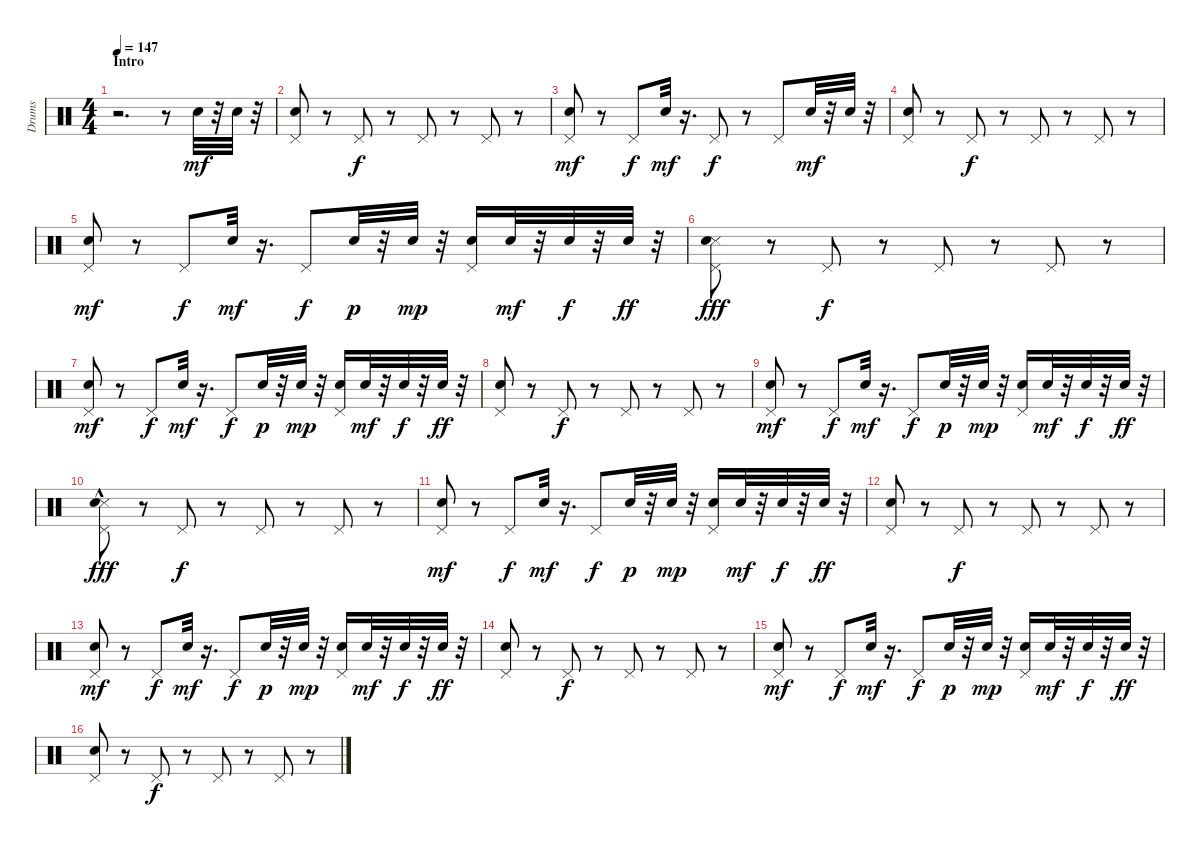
\track ("Drums" "Drums") {instrument percussion}
\staff {score}
\articulation defaults
\ts (4 4)
\section ("" "Intro")
\tempo 147
\clef neutral
\ks c
r.2{d dy mf} r.8 "Snare (hit) 2".32 r.32 "Snare (hit) 2".32 r.32 |
("Pedal Hi-Hat (hit)" "Snare (hit) 2").8 r.8 "Pedal Hi-Hat (hit)".8{dy f} r.8 "Pedal Hi-Hat (hit)".8 r.8 "Pedal Hi-Hat (hit)".8 r.8 |
("Pedal Hi-Hat (hit)" "Snare (hit) 2").8{dy mf} r.8 "Pedal Hi-Hat (hit)".8{dy f} "Snare (hit) 2".32{dy mf} r.16{d} "Pedal Hi-Hat (hit)".8{dy f} r.8 "Pedal Hi-Hat (hit)".8 "Snare (hit) 2".32{dy mf} r.32 "Snare (hit) 2".32 r.32 |
("Pedal Hi-Hat (hit)" "Snare (hit) 2").8 r.8 "Pedal Hi-Hat (hit)".8{dy f} r.8 "Pedal Hi-Hat (hit)".8 r.8 "Pedal Hi-Hat (hit)".8 r.8 |
("Pedal Hi-Hat (hit)" "Snare (hit) 2").8{dy mf} r.8 "Pedal Hi-Hat (hit)".8{dy f} "Snare (hit) 2".32{dy mf} r.16{d} "Pedal Hi-Hat (hit)".8{dy f} "Snare (hit) 2".32{dy p} r.32 "Snare (hit) 2".32{dy mp} r.32 ("Pedal Hi-Hat (hit)" "Snare (hit) 2").16 "Snare (hit) 2".32{dy mf} r.32 "Snare (hit) 2".32{dy f} r.32 "Snare (hit) 2".32{dy ff} r.32 |
("Pedal Hi-Hat (hit)" "Snare (side stick) 3" "Snare (hit) 2").8{dy fff} r.8 "Pedal Hi-Hat (hit)".8{dy f} r.8 "Pedal Hi-Hat (hit)".8 r.8 "Pedal Hi-Hat (hit)".8 r.8 |
("Pedal Hi-Hat (hit)" "Snare (hit) 2").8{dy mf} r.8 "Pedal Hi-Hat (hit)".8{dy f} "Snare (hit) 2".32{dy mf} r.16{d} "Pedal Hi-Hat (hit)".8{dy f} "Snare (hit) 2".32{dy p} r.32 "Snare (hit) 2".32{dy mp} r.32 ("Pedal Hi-Hat (hit)" "Snare (hit) 2").16 "Snare (hit) 2".32{dy mf} r.32 "Snare (hit) 2".32{dy f} r.32 "Snare (hit) 2".32{dy ff} r.32 |
("Pedal Hi-Hat (hit)" "Snare (hit) 2").8 r.8 "Pedal Hi-Hat (hit)".8{dy f} r.8 "Pedal Hi-Hat (hit)".8 r.8 "Pedal Hi-Hat (hit)".8 r.8 |
("Pedal Hi-Hat (hit)" "Snare (hit) 2").8{dy mf} r.8 "Pedal Hi-Hat (hit)".8{dy f} "Snare (hit) 2".32{dy mf} r.16{d} "Pedal Hi-Hat (hit)".8{dy f} "Snare (hit) 2".32{dy p} r.32 "Snare (hit) 2".32{dy mp} r.32 ("Pedal Hi-Hat (hit)" "Snare (hit) 2").16 "Snare (hit) 2".32{dy mf} r.32 "Snare (hit) 2".32{dy f} r.32 "Snare (hit) 2".32{dy ff} r.32 |
("Pedal Hi-Hat (hit)" "Snare (side stick) 3"{hac} "Snare (hit) 2").8{dy fff} r.8 "Pedal Hi-Hat (hit)".8{dy f} r.8 "Pedal Hi-Hat (hit)".8 r.8 "Pedal Hi-Hat (hit)".8 r.8 |
("Pedal Hi-Hat (hit)" "Snare (hit) 2").8{dy mf} r.8 "Pedal Hi-Hat (hit)".8{dy f} "Snare (hit) 2".32{dy mf} r.16{d} "Pedal Hi-Hat (hit)".8{dy f} "Snare (hit) 2".32{dy p} r.32 "Snare (hit) 2".32{dy mp} r.32 ("Pedal Hi-Hat (hit)" "Snare (hit) 2").16 "Snare (hit) 2".32{dy mf} r.32 "Snare (hit) 2".32{dy f} r.32 "Snare (hit) 2".32{dy ff} r.32 |
("Pedal Hi-Hat (hit)" "Snare (hit) 2").8 r.8 "Pedal Hi-Hat (hit)".8{dy f} r.8 "Pedal Hi-Hat (hit)".8 r.8 "Pedal Hi-Hat (hit)".8 r.8 |
("Pedal Hi-Hat (hit)" "Snare (hit) 2").8{dy mf} r.8 "Pedal Hi-Hat (hit)".8{dy f} "Snare (hit) 2".32{dy mf} r.16{d} "Pedal Hi-Hat (hit)".8{dy f} "Snare (hit) 2".32{dy p} r.32 "Snare (hit) 2".32{dy mp} r.32 ("Pedal Hi-Hat (hit)" "Snare (hit) 2").16 "Snare (hit) 2".32{dy mf} r.32 "Snare (hit) 2".32{dy f} r.32 "Snare (hit) 2".32{dy ff} r.32 |
("Pedal Hi-Hat (hit)" "Snare (hit) 2").8 r.8 "Pedal Hi-Hat (hit)".8{dy f} r.8 "Pedal Hi-Hat (hit)".8 r.8 "Pedal Hi-Hat (hit)".8 r.8 |
("Pedal Hi-Hat (hit)" "Snare (hit) 2").8{dy mf} r.8 "Pedal Hi-Hat (hit)".8{dy f} "Snare (hit) 2".32{dy mf} r.16{d} "Pedal Hi-Hat (hit)".8{dy f} "Snare (hit) 2".32{dy p} r.32 "Snare (hit) 2".32{dy mp} r.32 ("Pedal Hi-Hat (hit)" "Snare (hit) 2").16 "Snare (hit) 2".32{dy mf} r.32 "Snare (hit) 2".32{dy f} r.32 "Snare (hit) 2".32{dy ff} r.32 |
("Pedal Hi-Hat (hit)" "Snare (hit) 2").8 r.8 "Pedal Hi-Hat (hit)".8{dy f} r.8 "Pedal Hi-Hat (hit)".8 r.8 "Pedal Hi-Hat (hit)".8 r.8
